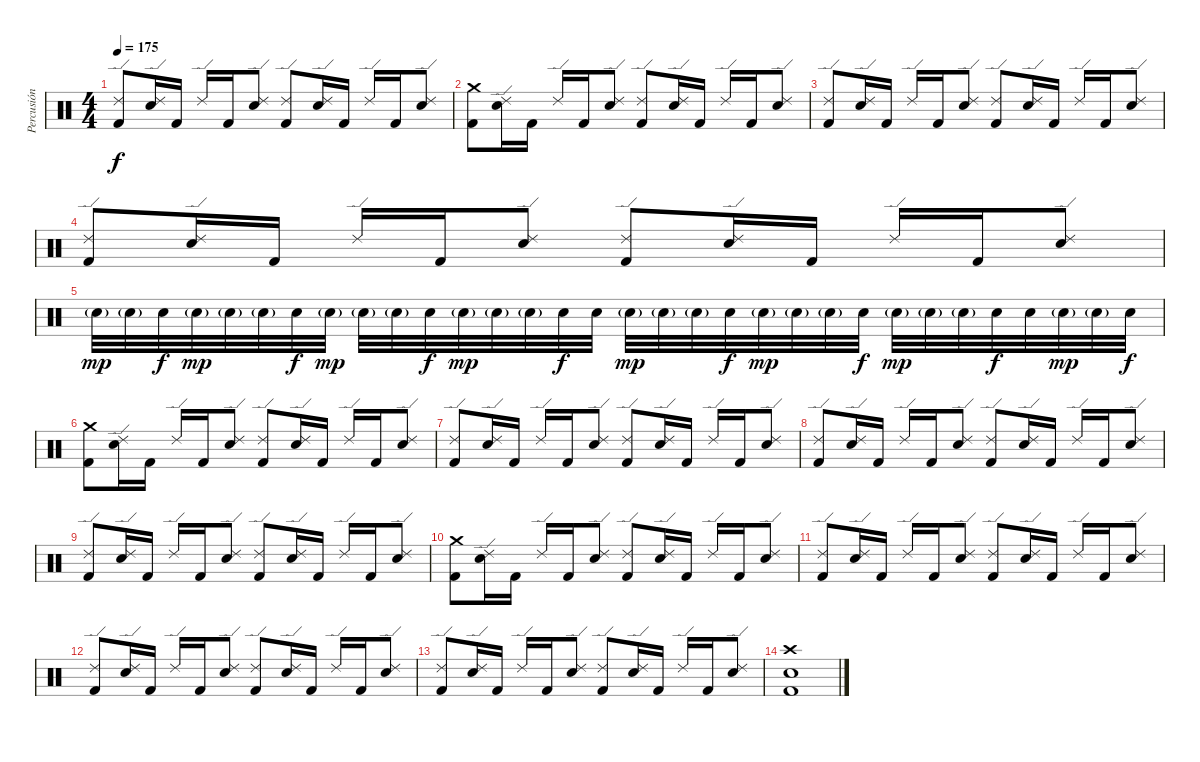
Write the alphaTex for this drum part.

\track ("Percusión" "Percusión") {instrument percussion}
\staff {score}
\articulation defaults
\ts (4 4)
\tempo 175
\clef neutral
\ks c
("Ride (edge) 2" "Kick (hit) 2").8{dy f} ("Ride (edge) 2" "Electric Snare (hit)").16 "Kick (hit) 2".16 "Ride (edge) 2".16 "Kick (hit) 2".16 ("Ride (edge) 2" "Electric Snare (hit)").8 ("Ride (edge) 2" "Kick (hit) 2").8 ("Ride (edge) 2" "Electric Snare (hit)").16 "Kick (hit) 2".16 "Ride (edge) 2".16 "Kick (hit) 2".16 ("Ride (edge) 2" "Electric Snare (hit)").8 |
("Crash medium (hit)" "Kick (hit) 2").8 ("Ride (edge) 2" "Electric Snare (hit)").16 "Kick (hit) 2".16 "Ride (edge) 2".16 "Kick (hit) 2".16 ("Ride (edge) 2" "Electric Snare (hit)").8 ("Ride (edge) 2" "Kick (hit) 2").8 ("Ride (edge) 2" "Electric Snare (hit)").16 "Kick (hit) 2".16 "Ride (edge) 2".16 "Kick (hit) 2".16 ("Ride (edge) 2" "Electric Snare (hit)").8 |
("Ride (edge) 2" "Kick (hit) 2").8 ("Ride (edge) 2" "Electric Snare (hit)").16 "Kick (hit) 2".16 "Ride (edge) 2".16 "Kick (hit) 2".16 ("Ride (edge) 2" "Electric Snare (hit)").8 ("Ride (edge) 2" "Kick (hit) 2").8 ("Ride (edge) 2" "Electric Snare (hit)").16 "Kick (hit) 2".16 "Ride (edge) 2".16 "Kick (hit) 2".16 ("Ride (edge) 2" "Electric Snare (hit)").8 |
("Ride (edge) 2" "Kick (hit) 2").8 ("Ride (edge) 2" "Electric Snare (hit)").16 "Kick (hit) 2".16 "Ride (edge) 2".16 "Kick (hit) 2".16 ("Ride (edge) 2" "Electric Snare (hit)").8 ("Ride (edge) 2" "Kick (hit) 2").8 ("Ride (edge) 2" "Electric Snare (hit)").16 "Kick (hit) 2".16 "Ride (edge) 2".16 "Kick (hit) 2".16 ("Ride (edge) 2" "Electric Snare (hit)").8 |
"Electric Snare (hit)"{g}.32{dy mp} "Electric Snare (hit)"{g}.32 "Electric Snare (hit)".32{dy f} "Electric Snare (hit)"{g}.32{dy mp} "Electric Snare (hit)"{g}.32 "Electric Snare (hit)"{g}.32 "Electric Snare (hit)".32{dy f} "Electric Snare (hit)"{g}.32{dy mp} "Electric Snare (hit)"{g}.32 "Electric Snare (hit)"{g}.32 "Electric Snare (hit)".32{dy f} "Electric Snare (hit)"{g}.32{dy mp} "Electric Snare (hit)"{g}.32 "Electric Snare (hit)"{g}.32 "Electric Snare (hit)".32{dy f} "Electric Snare (hit)".32 "Electric Snare (hit)"{g}.32{dy mp} "Electric Snare (hit)"{g}.32 "Electric Snare (hit)"{g}.32 "Electric Snare (hit)".32{dy f} "Electric Snare (hit)"{g}.32{dy mp} "Electric Snare (hit)"{g}.32 "Electric Snare (hit)"{g}.32 "Electric Snare (hit)".32{dy f} "Electric Snare (hit)"{g}.32{dy mp} "Electric Snare (hit)"{g}.32 "Electric Snare (hit)"{g}.32 "Electric Snare (hit)".32{dy f} "Electric Snare (hit)".32 "Electric Snare (hit)"{g}.32{dy mp} "Electric Snare (hit)"{g}.32 "Electric Snare (hit)".32{dy f} |
("Crash medium (hit)" "Kick (hit) 2").8 ("Ride (edge) 2" "Electric Snare (hit)").16 "Kick (hit) 2".16 "Ride (edge) 2".16 "Kick (hit) 2".16 ("Ride (edge) 2" "Electric Snare (hit)").8 ("Ride (edge) 2" "Kick (hit) 2").8 ("Ride (edge) 2" "Electric Snare (hit)").16 "Kick (hit) 2".16 "Ride (edge) 2".16 "Kick (hit) 2".16 ("Ride (edge) 2" "Electric Snare (hit)").8 |
("Ride (edge) 2" "Kick (hit) 2").8 ("Ride (edge) 2" "Electric Snare (hit)").16 "Kick (hit) 2".16 "Ride (edge) 2".16 "Kick (hit) 2".16 ("Ride (edge) 2" "Electric Snare (hit)").8 ("Ride (edge) 2" "Kick (hit) 2").8 ("Ride (edge) 2" "Electric Snare (hit)").16 "Kick (hit) 2".16 "Ride (edge) 2".16 "Kick (hit) 2".16 ("Ride (edge) 2" "Electric Snare (hit)").8 |
("Ride (edge) 2" "Kick (hit) 2").8 ("Ride (edge) 2" "Electric Snare (hit)").16 "Kick (hit) 2".16 "Ride (edge) 2".16 "Kick (hit) 2".16 ("Ride (edge) 2" "Electric Snare (hit)").8 ("Ride (edge) 2" "Kick (hit) 2").8 ("Ride (edge) 2" "Electric Snare (hit)").16 "Kick (hit) 2".16 "Ride (edge) 2".16 "Kick (hit) 2".16 ("Ride (edge) 2" "Electric Snare (hit)").8 |
("Ride (edge) 2" "Kick (hit) 2").8 ("Ride (edge) 2" "Electric Snare (hit)").16 "Kick (hit) 2".16 "Ride (edge) 2".16 "Kick (hit) 2".16 ("Ride (edge) 2" "Electric Snare (hit)").8 ("Ride (edge) 2" "Kick (hit) 2").8 ("Ride (edge) 2" "Electric Snare (hit)").16 "Kick (hit) 2".16 "Ride (edge) 2".16 "Kick (hit) 2".16 ("Ride (edge) 2" "Electric Snare (hit)").8 |
("Crash medium (hit)" "Kick (hit) 2").8 ("Ride (edge) 2" "Electric Snare (hit)").16 "Kick (hit) 2".16 "Ride (edge) 2".16 "Kick (hit) 2".16 ("Ride (edge) 2" "Electric Snare (hit)").8 ("Ride (edge) 2" "Kick (hit) 2").8 ("Ride (edge) 2" "Electric Snare (hit)").16 "Kick (hit) 2".16 "Ride (edge) 2".16 "Kick (hit) 2".16 ("Ride (edge) 2" "Electric Snare (hit)").8 |
("Ride (edge) 2" "Kick (hit) 2").8 ("Ride (edge) 2" "Electric Snare (hit)").16 "Kick (hit) 2".16 "Ride (edge) 2".16 "Kick (hit) 2".16 ("Ride (edge) 2" "Electric Snare (hit)").8 ("Ride (edge) 2" "Kick (hit) 2").8 ("Ride (edge) 2" "Electric Snare (hit)").16 "Kick (hit) 2".16 "Ride (edge) 2".16 "Kick (hit) 2".16 ("Ride (edge) 2" "Electric Snare (hit)").8 |
("Ride (edge) 2" "Kick (hit) 2").8 ("Ride (edge) 2" "Electric Snare (hit)").16 "Kick (hit) 2".16 "Ride (edge) 2".16 "Kick (hit) 2".16 ("Ride (edge) 2" "Electric Snare (hit)").8 ("Ride (edge) 2" "Kick (hit) 2").8 ("Ride (edge) 2" "Electric Snare (hit)").16 "Kick (hit) 2".16 "Ride (edge) 2".16 "Kick (hit) 2".16 ("Ride (edge) 2" "Electric Snare (hit)").8 |
("Ride (edge) 2" "Kick (hit) 2").8 ("Ride (edge) 2" "Electric Snare (hit)").16 "Kick (hit) 2".16 "Ride (edge) 2".16 "Kick (hit) 2".16 ("Ride (edge) 2" "Electric Snare (hit)").8 ("Ride (edge) 2" "Kick (hit) 2").8 ("Ride (edge) 2" "Electric Snare (hit)").16 "Kick (hit) 2".16 "Ride (edge) 2".16 "Kick (hit) 2".16 ("Ride (edge) 2" "Electric Snare (hit)").8 |
("Crash high (hit)" "Electric Snare (hit)" "Kick (hit) 2").1
